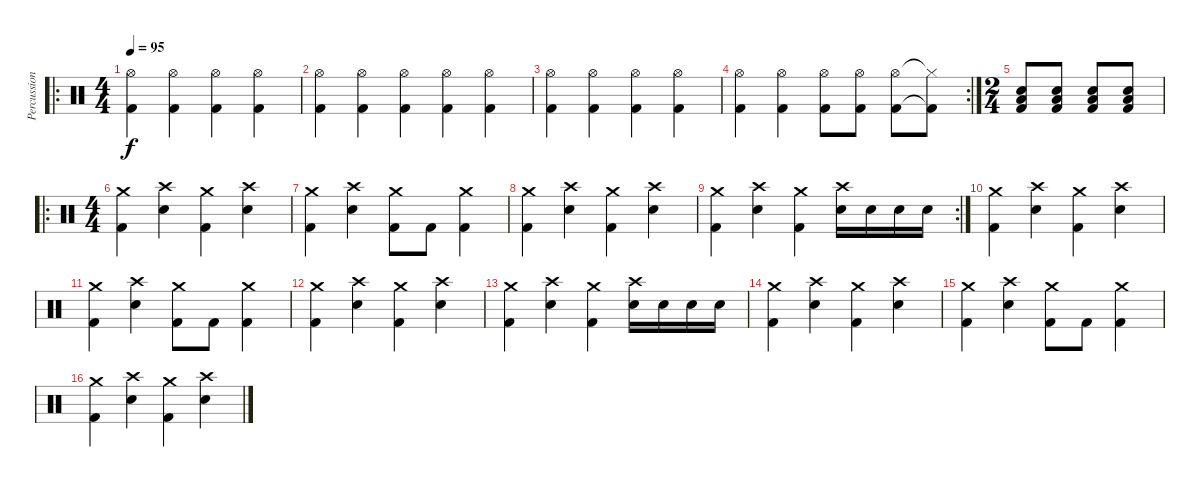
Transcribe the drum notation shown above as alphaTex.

\track ("Percussion" "Percussion") {instrument percussion}
\staff {score}
\articulation defaults
\ro
\ts (4 4)
\tempo 95
\clef neutral
\ks c
("Hi-Hat (open)" "Kick (hit) 2").4{dy f} ("Hi-Hat (open)" "Kick (hit) 2").4 ("Hi-Hat (open)" "Kick (hit) 2").4 ("Hi-Hat (open)" "Kick (hit) 2").4 |
("Hi-Hat (open)" "Kick (hit) 2").4 ("Hi-Hat (open)" "Kick (hit) 2").4 ("Hi-Hat (open)" "Kick (hit) 2").4 ("Hi-Hat (open)" "Kick (hit) 2").4 ("Hi-Hat (open)" "Kick (hit) 2").4 |
("Hi-Hat (open)" "Kick (hit) 2").4 ("Hi-Hat (open)" "Kick (hit) 2").4 ("Hi-Hat (open)" "Kick (hit) 2").4 ("Hi-Hat (open)" "Kick (hit) 2").4 |
\rc 2
("Hi-Hat (open)" "Kick (hit) 2").4 ("Hi-Hat (open)" "Kick (hit) 2").4 ("Hi-Hat (open)" "Kick (hit) 2").8 ("Hi-Hat (open)" "Kick (hit) 2").8 ("Hi-Hat (open)" "Kick (hit) 2").8 ("Hi-Hat (closed)"{t} "Kick (hit) 2"{t}).8 |
\ts (2 4)
("Low Floor Tom (hit)" "Electric Snare (hit)" "Kick (hit) 2").8 ("Low Floor Tom (hit)" "Electric Snare (hit)" "Kick (hit) 2").8 ("Low Floor Tom (hit)" "Electric Snare (hit)" "Kick (hit) 2").8 ("Low Floor Tom (hit)" "Electric Snare (hit)" "Kick (hit) 2").8 |
\ro
\ts (4 4)
("Crash medium (hit)" "Kick (hit) 2").4 ("Crash high (hit)" "Electric Snare (hit)").4 ("Crash medium (hit)" "Kick (hit) 2").4 ("Crash high (hit)" "Electric Snare (hit)").4 |
("Crash medium (hit)" "Kick (hit) 2").4 ("Crash high (hit)" "Electric Snare (hit)").4 ("Crash medium (hit)" "Kick (hit) 2").8 "Kick (hit) 2".8 ("Crash medium (hit)" "Kick (hit) 2").4 |
("Crash medium (hit)" "Kick (hit) 2").4 ("Crash high (hit)" "Electric Snare (hit)").4 ("Crash medium (hit)" "Kick (hit) 2").4 ("Crash high (hit)" "Electric Snare (hit)").4 |
\rc 2
("Crash medium (hit)" "Kick (hit) 2").4 ("Crash high (hit)" "Electric Snare (hit)").4 ("Crash medium (hit)" "Kick (hit) 2").4 ("Crash high (hit)" "Electric Snare (hit)").16 "Electric Snare (hit)".16 "Electric Snare (hit)".16 "Electric Snare (hit)".16 |
("Crash medium (hit)" "Kick (hit) 2").4 ("Crash high (hit)" "Electric Snare (hit)").4 ("Crash medium (hit)" "Kick (hit) 2").4 ("Crash high (hit)" "Electric Snare (hit)").4 |
("Crash medium (hit)" "Kick (hit) 2").4 ("Crash high (hit)" "Electric Snare (hit)").4 ("Crash medium (hit)" "Kick (hit) 2").8 "Kick (hit) 2".8 ("Crash medium (hit)" "Kick (hit) 2").4 |
("Crash medium (hit)" "Kick (hit) 2").4 ("Crash high (hit)" "Electric Snare (hit)").4 ("Crash medium (hit)" "Kick (hit) 2").4 ("Crash high (hit)" "Electric Snare (hit)").4 |
("Crash medium (hit)" "Kick (hit) 2").4 ("Crash high (hit)" "Electric Snare (hit)").4 ("Crash medium (hit)" "Kick (hit) 2").4 ("Crash high (hit)" "Electric Snare (hit)").16 "Electric Snare (hit)".16 "Electric Snare (hit)".16 "Electric Snare (hit)".16 |
("Crash medium (hit)" "Kick (hit) 2").4 ("Crash high (hit)" "Electric Snare (hit)").4 ("Crash medium (hit)" "Kick (hit) 2").4 ("Crash high (hit)" "Electric Snare (hit)").4 |
("Crash medium (hit)" "Kick (hit) 2").4 ("Crash high (hit)" "Electric Snare (hit)").4 ("Crash medium (hit)" "Kick (hit) 2").8 "Kick (hit) 2".8 ("Crash medium (hit)" "Kick (hit) 2").4 |
("Crash medium (hit)" "Kick (hit) 2").4 ("Crash high (hit)" "Electric Snare (hit)").4 ("Crash medium (hit)" "Kick (hit) 2").4 ("Crash high (hit)" "Electric Snare (hit)").4
